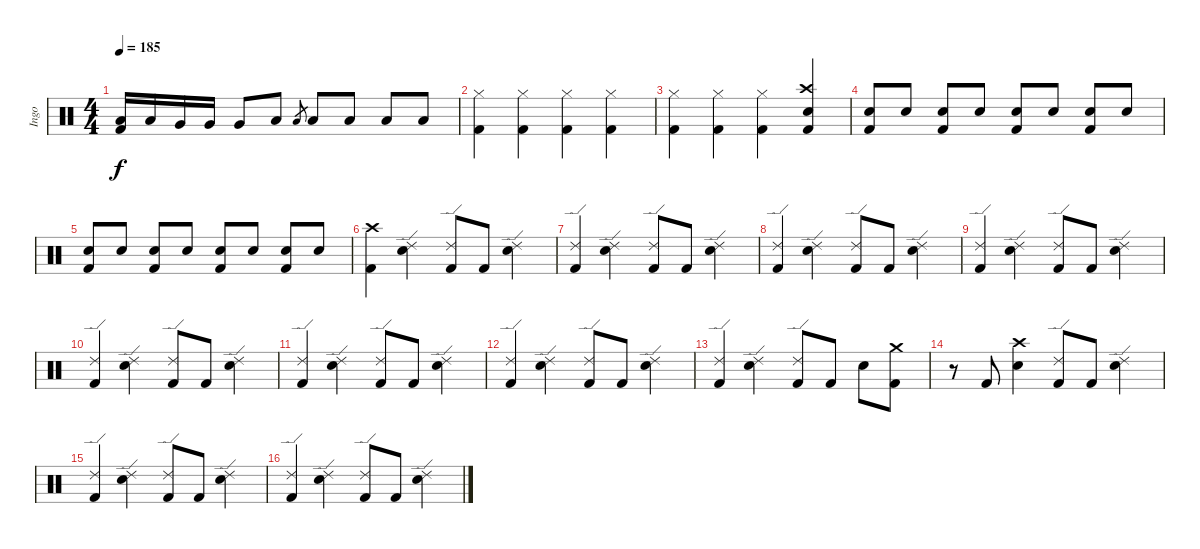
\track ("Ingo" "Ingo") {instrument percussion}
\staff {score}
\articulation defaults
\ts (4 4)
\tempo 185
\clef neutral
\ks c
("Low Tom (hit)" "Kick (hit) 2").16{dy f} "Low Tom (hit)".16 "Very Low Tom (hit)".16 "Very Low Tom (hit)".16 "Very Low Tom (hit)".8 "Low Tom (hit)".8 "Low Floor Tom (hit)".8{gr} "Low Floor Tom (hit)".8 "Low Floor Tom (hit)".8 "Low Floor Tom (hit)".8 "Low Floor Tom (hit)".8 |
("Hi-Hat (closed)" "Kick (hit) 2").4 ("Hi-Hat (closed)" "Kick (hit) 2").4 ("Hi-Hat (closed)" "Kick (hit) 2").4 ("Hi-Hat (closed)" "Kick (hit) 2").4 |
("Hi-Hat (closed)" "Kick (hit) 2").4 ("Hi-Hat (closed)" "Kick (hit) 2").4 ("Hi-Hat (closed)" "Kick (hit) 2").4 ("Crash high (hit)" "Electric Snare (hit)" "Kick (hit) 2").4 |
("Electric Snare (hit)" "Kick (hit) 2").8 "Electric Snare (hit)".8 ("Electric Snare (hit)" "Kick (hit) 2").8 "Electric Snare (hit)".8 ("Electric Snare (hit)" "Kick (hit) 2").8 "Electric Snare (hit)".8 ("Electric Snare (hit)" "Kick (hit) 2").8 "Electric Snare (hit)".8 |
("Electric Snare (hit)" "Kick (hit) 2").8 "Electric Snare (hit)".8 ("Electric Snare (hit)" "Kick (hit) 2").8 "Electric Snare (hit)".8 ("Electric Snare (hit)" "Kick (hit) 2").8 "Electric Snare (hit)".8 ("Electric Snare (hit)" "Kick (hit) 2").8 "Electric Snare (hit)".8 |
("Crash high (hit)" "Kick (hit) 2").4 ("Ride (edge) 2" "Electric Snare (hit)").4 ("Ride (edge) 2" "Kick (hit) 2").8 "Kick (hit) 2".8 ("Ride (edge) 2" "Electric Snare (hit)").4 |
("Ride (edge) 2" "Kick (hit) 2").4 ("Ride (edge) 2" "Electric Snare (hit)").4 ("Ride (edge) 2" "Kick (hit) 2").8 "Kick (hit) 2".8 ("Ride (edge) 2" "Electric Snare (hit)").4 |
("Ride (edge) 2" "Kick (hit) 2").4 ("Ride (edge) 2" "Electric Snare (hit)").4 ("Ride (edge) 2" "Kick (hit) 2").8 "Kick (hit) 2".8 ("Ride (edge) 2" "Electric Snare (hit)").4 |
("Ride (edge) 2" "Kick (hit) 2").4 ("Ride (edge) 2" "Electric Snare (hit)").4 ("Ride (edge) 2" "Kick (hit) 2").8 "Kick (hit) 2".8 ("Ride (edge) 2" "Electric Snare (hit)").4 |
("Ride (edge) 2" "Kick (hit) 2").4 ("Ride (edge) 2" "Electric Snare (hit)").4 ("Ride (edge) 2" "Kick (hit) 2").8 "Kick (hit) 2".8 ("Ride (edge) 2" "Electric Snare (hit)").4 |
("Ride (edge) 2" "Kick (hit) 2").4 ("Ride (edge) 2" "Electric Snare (hit)").4 ("Ride (edge) 2" "Kick (hit) 2").8 "Kick (hit) 2".8 ("Ride (edge) 2" "Electric Snare (hit)").4 |
("Ride (edge) 2" "Kick (hit) 2").4 ("Ride (edge) 2" "Electric Snare (hit)").4 ("Ride (edge) 2" "Kick (hit) 2").8 "Kick (hit) 2".8 ("Ride (edge) 2" "Electric Snare (hit)").4 |
("Ride (edge) 2" "Kick (hit) 2").4 ("Ride (edge) 2" "Electric Snare (hit)").4 ("Ride (edge) 2" "Kick (hit) 2").8 "Kick (hit) 2".8 "Electric Snare (hit)".8 ("Crash medium (hit)" "Kick (hit) 2").8 |
r.8 "Kick (hit) 2".8 ("Crash high (hit)" "Electric Snare (hit)").4 ("Ride (edge) 2" "Kick (hit) 2").8 "Kick (hit) 2".8 ("Ride (edge) 2" "Electric Snare (hit)").4 |
("Ride (edge) 2" "Kick (hit) 2").4 ("Ride (edge) 2" "Electric Snare (hit)").4 ("Ride (edge) 2" "Kick (hit) 2").8 "Kick (hit) 2".8 ("Ride (edge) 2" "Electric Snare (hit)").4 |
("Ride (edge) 2" "Kick (hit) 2").4 ("Ride (edge) 2" "Electric Snare (hit)").4 ("Ride (edge) 2" "Kick (hit) 2").8 "Kick (hit) 2".8 ("Ride (edge) 2" "Electric Snare (hit)").4
